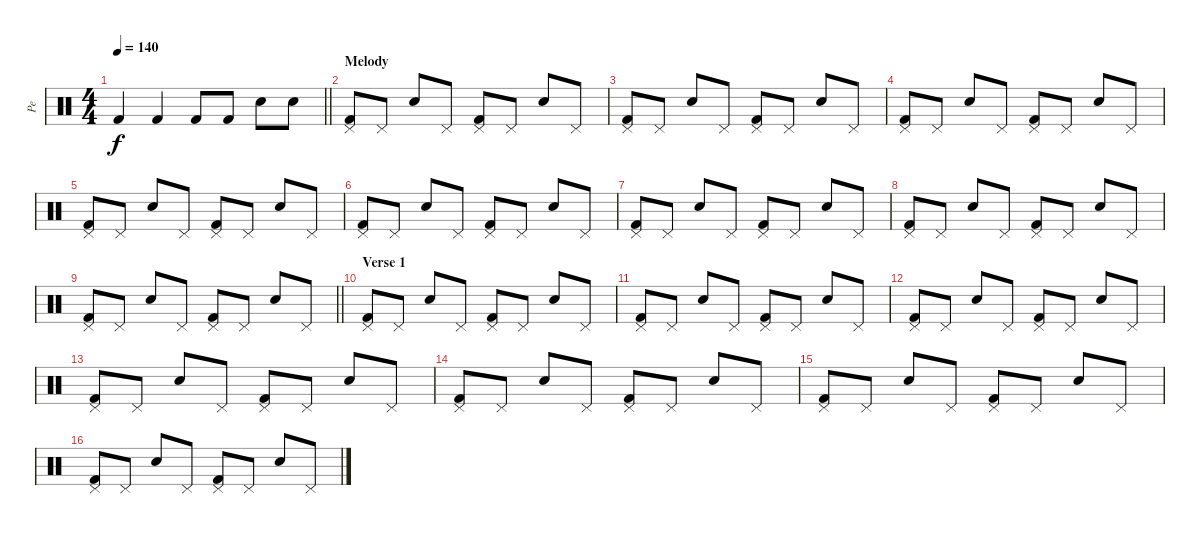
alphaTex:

\track ("Pe" "Pe") {instrument percussion}
\staff {score}
\articulation defaults
\ts (4 4)
\tempo 140
\clef neutral
\barLineRight lightlight
\ks c "Kick (hit) 2".4{dy f} "Kick (hit) 2".4 "Kick (hit) 2".8 "Kick (hit) 2".8 "Snare (hit) 2".8 "Snare (hit) 2".8
|
\section ("" "Melody")
("Kick (hit) 2" "Pedal Hi-Hat (hit)").8 "Pedal Hi-Hat (hit)".8 "Snare (hit) 2".8 "Pedal Hi-Hat (hit)".8 ("Kick (hit) 2" "Pedal Hi-Hat (hit)").8 "Pedal Hi-Hat (hit)".8 "Snare (hit) 2".8 "Pedal Hi-Hat (hit)".8 |
("Kick (hit) 2" "Pedal Hi-Hat (hit)").8 "Pedal Hi-Hat (hit)".8 "Snare (hit) 2".8 "Pedal Hi-Hat (hit)".8 ("Kick (hit) 2" "Pedal Hi-Hat (hit)").8 "Pedal Hi-Hat (hit)".8 "Snare (hit) 2".8 "Pedal Hi-Hat (hit)".8 |
("Kick (hit) 2" "Pedal Hi-Hat (hit)").8 "Pedal Hi-Hat (hit)".8 "Snare (hit) 2".8 "Pedal Hi-Hat (hit)".8 ("Kick (hit) 2" "Pedal Hi-Hat (hit)").8 "Pedal Hi-Hat (hit)".8 "Snare (hit) 2".8 "Pedal Hi-Hat (hit)".8 |
("Kick (hit) 2" "Pedal Hi-Hat (hit)").8 "Pedal Hi-Hat (hit)".8 "Snare (hit) 2".8 "Pedal Hi-Hat (hit)".8 ("Kick (hit) 2" "Pedal Hi-Hat (hit)").8 "Pedal Hi-Hat (hit)".8 "Snare (hit) 2".8 "Pedal Hi-Hat (hit)".8 |
("Kick (hit) 2" "Pedal Hi-Hat (hit)").8 "Pedal Hi-Hat (hit)".8 "Snare (hit) 2".8 "Pedal Hi-Hat (hit)".8 ("Kick (hit) 2" "Pedal Hi-Hat (hit)").8 "Pedal Hi-Hat (hit)".8 "Snare (hit) 2".8 "Pedal Hi-Hat (hit)".8 |
("Kick (hit) 2" "Pedal Hi-Hat (hit)").8 "Pedal Hi-Hat (hit)".8 "Snare (hit) 2".8 "Pedal Hi-Hat (hit)".8 ("Kick (hit) 2" "Pedal Hi-Hat (hit)").8 "Pedal Hi-Hat (hit)".8 "Snare (hit) 2".8 "Pedal Hi-Hat (hit)".8 |
("Kick (hit) 2" "Pedal Hi-Hat (hit)").8 "Pedal Hi-Hat (hit)".8 "Snare (hit) 2".8 "Pedal Hi-Hat (hit)".8 ("Kick (hit) 2" "Pedal Hi-Hat (hit)").8 "Pedal Hi-Hat (hit)".8 "Snare (hit) 2".8 "Pedal Hi-Hat (hit)".8 |
\barLineRight lightlight
("Kick (hit) 2" "Pedal Hi-Hat (hit)").8 "Pedal Hi-Hat (hit)".8 "Snare (hit) 2".8 "Pedal Hi-Hat (hit)".8 ("Kick (hit) 2" "Pedal Hi-Hat (hit)").8 "Pedal Hi-Hat (hit)".8 "Snare (hit) 2".8 "Pedal Hi-Hat (hit)".8 |
\section ("" "Verse 1")
("Kick (hit) 2" "Pedal Hi-Hat (hit)").8 "Pedal Hi-Hat (hit)".8 "Snare (hit) 2".8 "Pedal Hi-Hat (hit)".8 ("Kick (hit) 2" "Pedal Hi-Hat (hit)").8 "Pedal Hi-Hat (hit)".8 "Snare (hit) 2".8 "Pedal Hi-Hat (hit)".8 |
("Kick (hit) 2" "Pedal Hi-Hat (hit)").8 "Pedal Hi-Hat (hit)".8 "Snare (hit) 2".8 "Pedal Hi-Hat (hit)".8 ("Kick (hit) 2" "Pedal Hi-Hat (hit)").8 "Pedal Hi-Hat (hit)".8 "Snare (hit) 2".8 "Pedal Hi-Hat (hit)".8 |
("Kick (hit) 2" "Pedal Hi-Hat (hit)").8 "Pedal Hi-Hat (hit)".8 "Snare (hit) 2".8 "Pedal Hi-Hat (hit)".8 ("Kick (hit) 2" "Pedal Hi-Hat (hit)").8 "Pedal Hi-Hat (hit)".8 "Snare (hit) 2".8 "Pedal Hi-Hat (hit)".8 |
("Kick (hit) 2" "Pedal Hi-Hat (hit)").8 "Pedal Hi-Hat (hit)".8 "Snare (hit) 2".8 "Pedal Hi-Hat (hit)".8 ("Kick (hit) 2" "Pedal Hi-Hat (hit)").8 "Pedal Hi-Hat (hit)".8 "Snare (hit) 2".8 "Pedal Hi-Hat (hit)".8 |
("Kick (hit) 2" "Pedal Hi-Hat (hit)").8 "Pedal Hi-Hat (hit)".8 "Snare (hit) 2".8 "Pedal Hi-Hat (hit)".8 ("Kick (hit) 2" "Pedal Hi-Hat (hit)").8 "Pedal Hi-Hat (hit)".8 "Snare (hit) 2".8 "Pedal Hi-Hat (hit)".8 |
("Kick (hit) 2" "Pedal Hi-Hat (hit)").8 "Pedal Hi-Hat (hit)".8 "Snare (hit) 2".8 "Pedal Hi-Hat (hit)".8 ("Kick (hit) 2" "Pedal Hi-Hat (hit)").8 "Pedal Hi-Hat (hit)".8 "Snare (hit) 2".8 "Pedal Hi-Hat (hit)".8 |
("Kick (hit) 2" "Pedal Hi-Hat (hit)").8 "Pedal Hi-Hat (hit)".8 "Snare (hit) 2".8 "Pedal Hi-Hat (hit)".8 ("Kick (hit) 2" "Pedal Hi-Hat (hit)").8 "Pedal Hi-Hat (hit)".8 "Snare (hit) 2".8 "Pedal Hi-Hat (hit)".8
